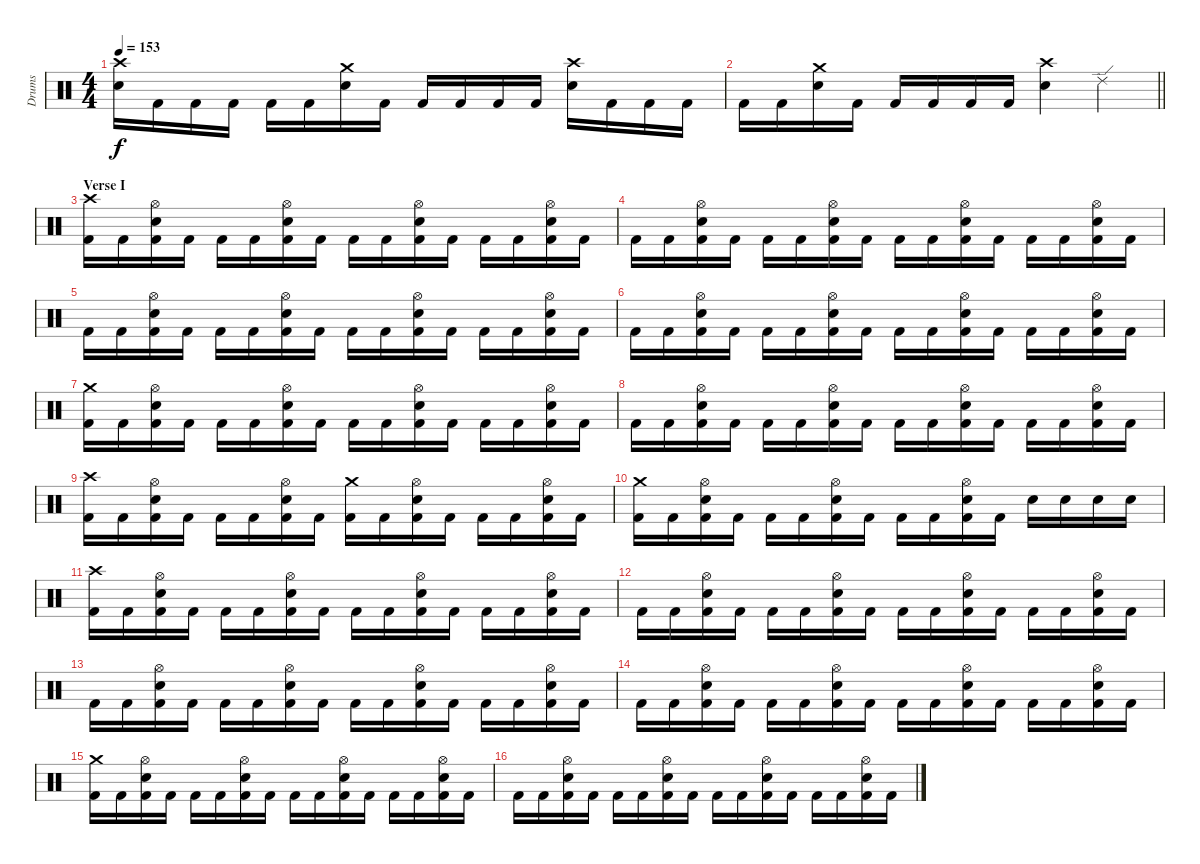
\track ("Drums" "Drums") {instrument percussion}
\staff {score}
\articulation defaults
\ts (4 4)
\tempo 153
\clef neutral
\ks c
("Crash high (hit)" "Snare (hit) 2").16{dy f} "Kick (hit) 2".16 "Kick (hit) 2".16 "Kick (hit) 2".16 "Kick (hit) 2".16 "Kick (hit) 2".16 ("Crash medium (hit)" "Snare (hit) 2").16 "Kick (hit) 2".16 "Kick (hit) 2".16 "Kick (hit) 2".16 "Kick (hit) 2".16 "Kick (hit) 2".16 ("Crash high (hit)" "Snare (hit) 2").16 "Kick (hit) 2".16 "Kick (hit) 2".16 "Kick (hit) 2".16 |
\barLineRight lightlight "Kick (hit) 2".16 "Kick (hit) 2".16
("Crash medium (hit)" "Snare (hit) 2").16 "Kick (hit) 2".16 "Kick (hit) 2".16 "Kick (hit) 2".16 "Kick (hit) 2".16 "Kick (hit) 2".16 ("Crash high (hit)" "Snare (hit) 2").4 "Ride (edge) 2".4 |
\section ("" "Verse I")
("Crash high (hit)" "Kick (hit) 2").16 "Kick (hit) 2".16 ("Hi-Hat (open)" "Snare (hit) 2" "Kick (hit) 2").16 "Kick (hit) 2".16 "Kick (hit) 2".16 "Kick (hit) 2".16 ("Hi-Hat (open)" "Snare (hit) 2" "Kick (hit) 2").16 "Kick (hit) 2".16 "Kick (hit) 2".16 "Kick (hit) 2".16 ("Hi-Hat (open)" "Snare (hit) 2" "Kick (hit) 2").16 "Kick (hit) 2".16 "Kick (hit) 2".16 "Kick (hit) 2".16 ("Hi-Hat (open)" "Snare (hit) 2" "Kick (hit) 2").16 "Kick (hit) 2".16 |
"Kick (hit) 2".16 "Kick (hit) 2".16 ("Hi-Hat (open)" "Snare (hit) 2" "Kick (hit) 2").16 "Kick (hit) 2".16 "Kick (hit) 2".16 "Kick (hit) 2".16 ("Hi-Hat (open)" "Snare (hit) 2" "Kick (hit) 2").16 "Kick (hit) 2".16 "Kick (hit) 2".16 "Kick (hit) 2".16 ("Hi-Hat (open)" "Snare (hit) 2" "Kick (hit) 2").16 "Kick (hit) 2".16 "Kick (hit) 2".16 "Kick (hit) 2".16 ("Hi-Hat (open)" "Snare (hit) 2" "Kick (hit) 2").16 "Kick (hit) 2".16 |
"Kick (hit) 2".16 "Kick (hit) 2".16 ("Hi-Hat (open)" "Snare (hit) 2" "Kick (hit) 2").16 "Kick (hit) 2".16 "Kick (hit) 2".16 "Kick (hit) 2".16 ("Hi-Hat (open)" "Snare (hit) 2" "Kick (hit) 2").16 "Kick (hit) 2".16 "Kick (hit) 2".16 "Kick (hit) 2".16 ("Hi-Hat (open)" "Snare (hit) 2" "Kick (hit) 2").16 "Kick (hit) 2".16 "Kick (hit) 2".16 "Kick (hit) 2".16 ("Hi-Hat (open)" "Snare (hit) 2" "Kick (hit) 2").16 "Kick (hit) 2".16 |
"Kick (hit) 2".16 "Kick (hit) 2".16 ("Hi-Hat (open)" "Snare (hit) 2" "Kick (hit) 2").16 "Kick (hit) 2".16 "Kick (hit) 2".16 "Kick (hit) 2".16 ("Hi-Hat (open)" "Snare (hit) 2" "Kick (hit) 2").16 "Kick (hit) 2".16 "Kick (hit) 2".16 "Kick (hit) 2".16 ("Hi-Hat (open)" "Snare (hit) 2" "Kick (hit) 2").16 "Kick (hit) 2".16 "Kick (hit) 2".16 "Kick (hit) 2".16 ("Hi-Hat (open)" "Snare (hit) 2" "Kick (hit) 2").16 "Kick (hit) 2".16 |
("Crash medium (hit)" "Kick (hit) 2").16 "Kick (hit) 2".16 ("Hi-Hat (open)" "Snare (hit) 2" "Kick (hit) 2").16 "Kick (hit) 2".16 "Kick (hit) 2".16 "Kick (hit) 2".16 ("Hi-Hat (open)" "Snare (hit) 2" "Kick (hit) 2").16 "Kick (hit) 2".16 "Kick (hit) 2".16 "Kick (hit) 2".16 ("Hi-Hat (open)" "Snare (hit) 2" "Kick (hit) 2").16 "Kick (hit) 2".16 "Kick (hit) 2".16 "Kick (hit) 2".16 ("Hi-Hat (open)" "Snare (hit) 2" "Kick (hit) 2").16 "Kick (hit) 2".16 |
"Kick (hit) 2".16 "Kick (hit) 2".16 ("Hi-Hat (open)" "Snare (hit) 2" "Kick (hit) 2").16 "Kick (hit) 2".16 "Kick (hit) 2".16 "Kick (hit) 2".16 ("Hi-Hat (open)" "Snare (hit) 2" "Kick (hit) 2").16 "Kick (hit) 2".16 "Kick (hit) 2".16 "Kick (hit) 2".16 ("Hi-Hat (open)" "Snare (hit) 2" "Kick (hit) 2").16 "Kick (hit) 2".16 "Kick (hit) 2".16 "Kick (hit) 2".16 ("Hi-Hat (open)" "Snare (hit) 2" "Kick (hit) 2").16 "Kick (hit) 2".16 |
("Crash high (hit)" "Kick (hit) 2").16 "Kick (hit) 2".16 ("Hi-Hat (open)" "Snare (hit) 2" "Kick (hit) 2").16 "Kick (hit) 2".16 "Kick (hit) 2".16 "Kick (hit) 2".16 ("Hi-Hat (open)" "Snare (hit) 2" "Kick (hit) 2").16 "Kick (hit) 2".16 ("Crash medium (hit)" "Kick (hit) 2").16 "Kick (hit) 2".16 ("Hi-Hat (open)" "Snare (hit) 2" "Kick (hit) 2").16 "Kick (hit) 2".16 "Kick (hit) 2".16 "Kick (hit) 2".16 ("Hi-Hat (open)" "Snare (hit) 2" "Kick (hit) 2").16 "Kick (hit) 2".16 |
("Crash medium (hit)" "Kick (hit) 2").16 "Kick (hit) 2".16 ("Hi-Hat (open)" "Snare (hit) 2" "Kick (hit) 2").16 "Kick (hit) 2".16 "Kick (hit) 2".16 "Kick (hit) 2".16 ("Hi-Hat (open)" "Snare (hit) 2" "Kick (hit) 2").16 "Kick (hit) 2".16 "Kick (hit) 2".16 "Kick (hit) 2".16 ("Hi-Hat (open)" "Snare (hit) 2" "Kick (hit) 2").16 "Kick (hit) 2".16 "Snare (hit) 2".16 "Snare (hit) 2".16 "Snare (hit) 2".16 "Snare (hit) 2".16 |
("Crash high (hit)" "Kick (hit) 2").16 "Kick (hit) 2".16 ("Hi-Hat (open)" "Snare (hit) 2" "Kick (hit) 2").16 "Kick (hit) 2".16 "Kick (hit) 2".16 "Kick (hit) 2".16 ("Hi-Hat (open)" "Snare (hit) 2" "Kick (hit) 2").16 "Kick (hit) 2".16 "Kick (hit) 2".16 "Kick (hit) 2".16 ("Hi-Hat (open)" "Snare (hit) 2" "Kick (hit) 2").16 "Kick (hit) 2".16 "Kick (hit) 2".16 "Kick (hit) 2".16 ("Hi-Hat (open)" "Snare (hit) 2" "Kick (hit) 2").16 "Kick (hit) 2".16 |
"Kick (hit) 2".16 "Kick (hit) 2".16 ("Hi-Hat (open)" "Snare (hit) 2" "Kick (hit) 2").16 "Kick (hit) 2".16 "Kick (hit) 2".16 "Kick (hit) 2".16 ("Hi-Hat (open)" "Snare (hit) 2" "Kick (hit) 2").16 "Kick (hit) 2".16 "Kick (hit) 2".16 "Kick (hit) 2".16 ("Hi-Hat (open)" "Snare (hit) 2" "Kick (hit) 2").16 "Kick (hit) 2".16 "Kick (hit) 2".16 "Kick (hit) 2".16 ("Hi-Hat (open)" "Snare (hit) 2" "Kick (hit) 2").16 "Kick (hit) 2".16 |
"Kick (hit) 2".16 "Kick (hit) 2".16 ("Hi-Hat (open)" "Snare (hit) 2" "Kick (hit) 2").16 "Kick (hit) 2".16 "Kick (hit) 2".16 "Kick (hit) 2".16 ("Hi-Hat (open)" "Snare (hit) 2" "Kick (hit) 2").16 "Kick (hit) 2".16 "Kick (hit) 2".16 "Kick (hit) 2".16 ("Hi-Hat (open)" "Snare (hit) 2" "Kick (hit) 2").16 "Kick (hit) 2".16 "Kick (hit) 2".16 "Kick (hit) 2".16 ("Hi-Hat (open)" "Snare (hit) 2" "Kick (hit) 2").16 "Kick (hit) 2".16 |
"Kick (hit) 2".16 "Kick (hit) 2".16 ("Hi-Hat (open)" "Snare (hit) 2" "Kick (hit) 2").16 "Kick (hit) 2".16 "Kick (hit) 2".16 "Kick (hit) 2".16 ("Hi-Hat (open)" "Snare (hit) 2" "Kick (hit) 2").16 "Kick (hit) 2".16 "Kick (hit) 2".16 "Kick (hit) 2".16 ("Hi-Hat (open)" "Snare (hit) 2" "Kick (hit) 2").16 "Kick (hit) 2".16 "Kick (hit) 2".16 "Kick (hit) 2".16 ("Hi-Hat (open)" "Snare (hit) 2" "Kick (hit) 2").16 "Kick (hit) 2".16 |
("Crash medium (hit)" "Kick (hit) 2").16 "Kick (hit) 2".16 ("Hi-Hat (open)" "Snare (hit) 2" "Kick (hit) 2").16 "Kick (hit) 2".16 "Kick (hit) 2".16 "Kick (hit) 2".16 ("Hi-Hat (open)" "Snare (hit) 2" "Kick (hit) 2").16 "Kick (hit) 2".16 "Kick (hit) 2".16 "Kick (hit) 2".16 ("Hi-Hat (open)" "Snare (hit) 2" "Kick (hit) 2").16 "Kick (hit) 2".16 "Kick (hit) 2".16 "Kick (hit) 2".16 ("Hi-Hat (open)" "Snare (hit) 2" "Kick (hit) 2").16 "Kick (hit) 2".16 |
"Kick (hit) 2".16 "Kick (hit) 2".16 ("Hi-Hat (open)" "Snare (hit) 2" "Kick (hit) 2").16 "Kick (hit) 2".16 "Kick (hit) 2".16 "Kick (hit) 2".16 ("Hi-Hat (open)" "Snare (hit) 2" "Kick (hit) 2").16 "Kick (hit) 2".16 "Kick (hit) 2".16 "Kick (hit) 2".16 ("Hi-Hat (open)" "Snare (hit) 2" "Kick (hit) 2").16 "Kick (hit) 2".16 "Kick (hit) 2".16 "Kick (hit) 2".16 ("Hi-Hat (open)" "Snare (hit) 2" "Kick (hit) 2").16 "Kick (hit) 2".16
